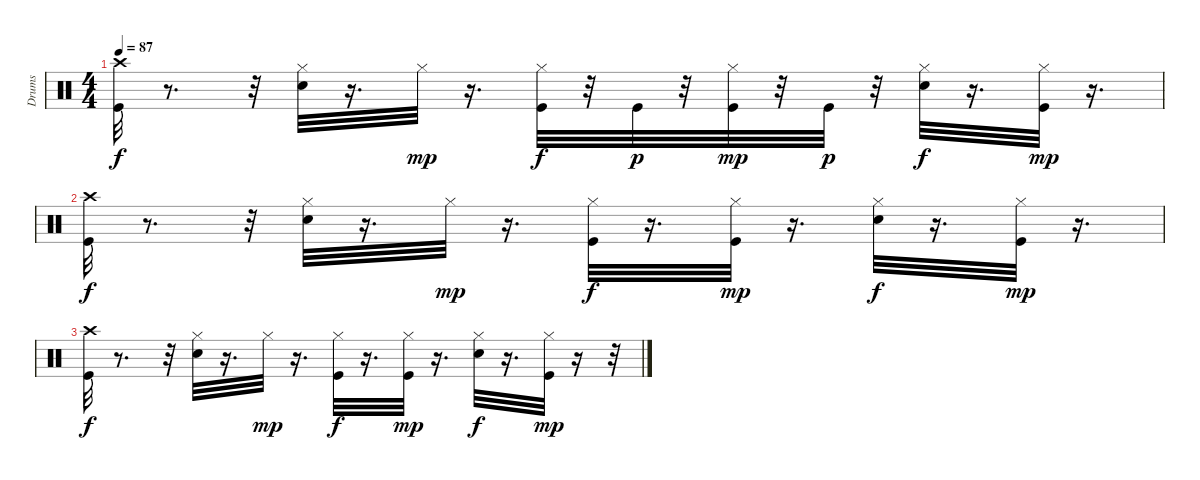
\track ("Drums" "Drums") {instrument percussion}
\staff {score}
\articulation defaults
\ts (4 4)
\tempo 87
\clef neutral
\ks c
("Kick (hit)" "Crash high (hit)").32{dy f} r.8{d} r.32 ("Electric Snare (hit)" "Hi-Hat (closed)").32 r.16{d} "Hi-Hat (closed)".32{dy mp} r.16{d} ("Hi-Hat (closed)" "Kick (hit)").32{dy f} r.32 "Kick (hit)".32{dy p} r.32 ("Hi-Hat (closed)" "Kick (hit)").32{dy mp} r.32 "Kick (hit)".32{dy p} r.32 ("Hi-Hat (closed)" "Electric Snare (hit)").32{dy f} r.16{d} ("Hi-Hat (closed)" "Kick (hit)").32{dy mp} r.16{d} |
("Kick (hit)" "Crash high (hit)").32{dy f} r.8{d} r.32 ("Electric Snare (hit)" "Hi-Hat (closed)").32 r.16{d} "Hi-Hat (closed)".32{dy mp} r.16{d} ("Hi-Hat (closed)" "Kick (hit)").32{dy f} r.16{d} ("Hi-Hat (closed)" "Kick (hit)").32{dy mp} r.16{d} ("Hi-Hat (closed)" "Electric Snare (hit)").32{dy f} r.16{d} ("Hi-Hat (closed)" "Kick (hit)").32{dy mp} r.16{d} |
("Kick (hit)" "Crash high (hit)").32{dy f} r.8{d} r.32 ("Electric Snare (hit)" "Hi-Hat (closed)").32 r.16{d} "Hi-Hat (closed)".32{dy mp} r.16{d} ("Hi-Hat (closed)" "Kick (hit)").32{dy f} r.16{d} ("Hi-Hat (closed)" "Kick (hit)").32{dy mp} r.16{d} ("Hi-Hat (closed)" "Electric Snare (hit)").32{dy f} r.16{d} ("Hi-Hat (closed)" "Kick (hit)").32{dy mp} r.16 r.32
